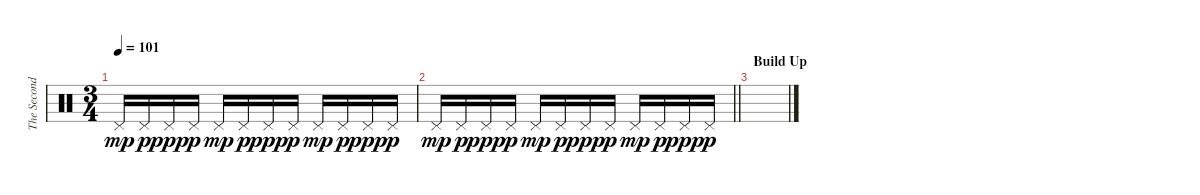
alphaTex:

\track ("The Second Drummer" "The Second") {instrument percussion}
\staff {score}
\articulation defaults
\ts (3 4)
\tempo 101
\clef neutral
\ks c "Pedal Hi-Hat (hit)".16{dy mp} "Pedal Hi-Hat (hit)".16{dy p} "Pedal Hi-Hat (hit)".16{dy ppp} "Pedal Hi-Hat (hit)".16{dy p} "Pedal Hi-Hat (hit)".16{dy mp} "Pedal Hi-Hat (hit)".16{dy p} "Pedal Hi-Hat (hit)".16{dy ppp} "Pedal Hi-Hat (hit)".16{dy p} "Pedal Hi-Hat (hit)".16{dy mp} "Pedal Hi-Hat (hit)".16{dy p} "Pedal Hi-Hat (hit)".16{dy ppp} "Pedal Hi-Hat (hit)".16{dy p}
|
\barLineRight lightlight "Pedal Hi-Hat (hit)".16{dy mp} "Pedal Hi-Hat (hit)".16{dy p} "Pedal Hi-Hat (hit)".16{dy ppp} "Pedal Hi-Hat (hit)".16{dy p} "Pedal Hi-Hat (hit)".16{dy mp} "Pedal Hi-Hat (hit)".16{dy p} "Pedal Hi-Hat (hit)".16{dy ppp} "Pedal Hi-Hat (hit)".16{dy p} "Pedal Hi-Hat (hit)".16{dy mp} "Pedal Hi-Hat (hit)".16{dy p} "Pedal Hi-Hat (hit)".16{dy ppp} "Pedal Hi-Hat (hit)".16{dy p}
|
\section ("" "Build Up")
